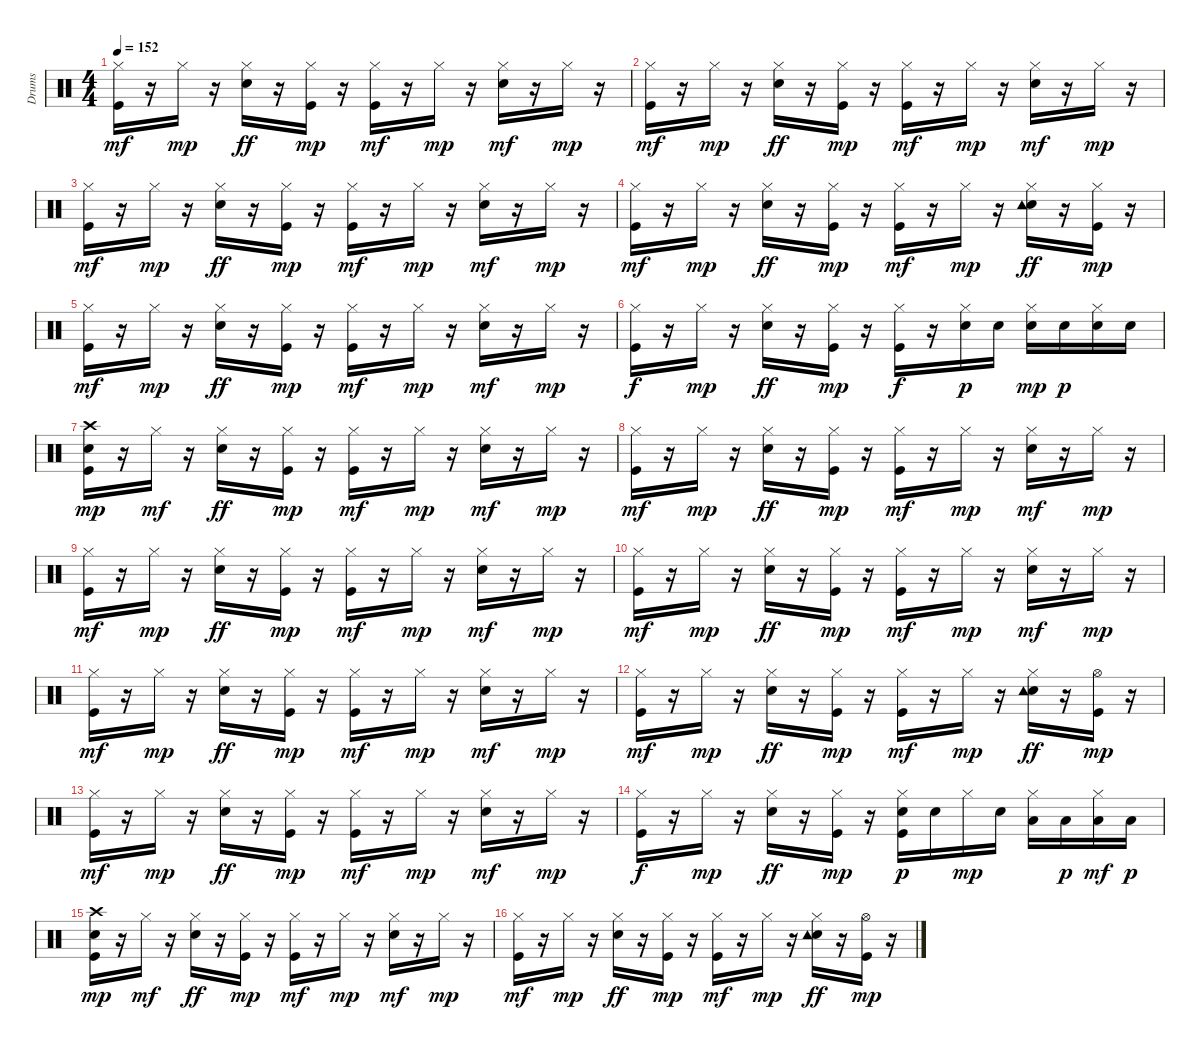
\track ("Drums   " "Drums   ") {instrument percussion}
\staff {score}
\articulation defaults
\ts (4 4)
\tempo 152
\clef neutral
\ks c
("Kick (hit)" "Hi-Hat (closed)").16{dy mf} r.16 "Hi-Hat (closed)".16{dy mp} r.16 ("Snare (hit) 2" "Hi-Hat (closed)").16{dy ff} r.16 ("Kick (hit)" "Hi-Hat (closed)").16{dy mp} r.16 ("Kick (hit)" "Hi-Hat (closed)").16{dy mf} r.16 "Hi-Hat (closed)".16{dy mp} r.16 ("Snare (hit) 2" "Hi-Hat (closed)").16{dy mf} r.16 "Hi-Hat (closed)".16{dy mp} r.16 |
("Kick (hit)" "Hi-Hat (closed)").16{dy mf} r.16 "Hi-Hat (closed)".16{dy mp} r.16 ("Snare (hit) 2" "Hi-Hat (closed)").16{dy ff} r.16 ("Kick (hit)" "Hi-Hat (closed)").16{dy mp} r.16 ("Kick (hit)" "Hi-Hat (closed)").16{dy mf} r.16 "Hi-Hat (closed)".16{dy mp} r.16 ("Snare (hit) 2" "Hi-Hat (closed)").16{dy mf} r.16 "Hi-Hat (closed)".16{dy mp} r.16 |
("Kick (hit)" "Hi-Hat (closed)").16{dy mf} r.16 "Hi-Hat (closed)".16{dy mp} r.16 ("Snare (hit) 2" "Hi-Hat (closed)").16{dy ff} r.16 ("Kick (hit)" "Hi-Hat (closed)").16{dy mp} r.16 ("Kick (hit)" "Hi-Hat (closed)").16{dy mf} r.16 "Hi-Hat (closed)".16{dy mp} r.16 ("Snare (hit) 2" "Hi-Hat (closed)").16{dy mf} r.16 "Hi-Hat (closed)".16{dy mp} r.16 |
("Kick (hit)" "Hi-Hat (closed)").16{dy mf} r.16 "Hi-Hat (closed)".16{dy mp} r.16 ("Snare (hit) 2" "Hi-Hat (closed)").16{dy ff} r.16 ("Kick (hit)" "Hi-Hat (closed)").16{dy mp} r.16 ("Kick (hit)" "Hi-Hat (closed)").16{dy mf} r.16 "Hi-Hat (closed)".16{dy mp} r.16 ("Snare (hit) 2" "Hi-Hat (closed)" "Tambourine (hit)").16{dy ff} r.16 ("Kick (hit)" "Hi-Hat (closed)").16{dy mp} r.16 |
("Kick (hit)" "Hi-Hat (closed)").16{dy mf} r.16 "Hi-Hat (closed)".16{dy mp} r.16 ("Snare (hit) 2" "Hi-Hat (closed)").16{dy ff} r.16 ("Kick (hit)" "Hi-Hat (closed)").16{dy mp} r.16 ("Kick (hit)" "Hi-Hat (closed)").16{dy mf} r.16 "Hi-Hat (closed)".16{dy mp} r.16 ("Snare (hit) 2" "Hi-Hat (closed)").16{dy mf} r.16 "Hi-Hat (closed)".16{dy mp} r.16 |
("Kick (hit)" "Hi-Hat (closed)").16{dy f} r.16 "Hi-Hat (closed)".16{dy mp} r.16 ("Snare (hit) 2" "Hi-Hat (closed)").16{dy ff} r.16 ("Kick (hit)" "Hi-Hat (closed)").16{dy mp} r.16 ("Kick (hit)" "Hi-Hat (closed)").16{dy f} r.16 ("Snare (hit) 2" "Hi-Hat (closed)").16{dy p} "Snare (hit) 2".16 ("Snare (hit) 2" "Hi-Hat (closed)").16{dy mp} "Snare (hit) 2".16{dy p} ("Snare (hit) 2" "Hi-Hat (closed)").16 "Snare (hit) 2".16 |
("Kick (hit)" "Snare (hit) 2" "Crash high (hit)").16{dy mp} r.16 "Hi-Hat (closed)".16{dy mf} r.16 ("Snare (hit) 2" "Hi-Hat (closed)").16{dy ff} r.16 ("Kick (hit)" "Hi-Hat (closed)").16{dy mp} r.16 ("Kick (hit)" "Hi-Hat (closed)").16{dy mf} r.16 "Hi-Hat (closed)".16{dy mp} r.16 ("Snare (hit) 2" "Hi-Hat (closed)").16{dy mf} r.16 "Hi-Hat (closed)".16{dy mp} r.16 |
("Kick (hit)" "Hi-Hat (closed)").16{dy mf} r.16 "Hi-Hat (closed)".16{dy mp} r.16 ("Snare (hit) 2" "Hi-Hat (closed)").16{dy ff} r.16 ("Kick (hit)" "Hi-Hat (closed)").16{dy mp} r.16 ("Kick (hit)" "Hi-Hat (closed)").16{dy mf} r.16 "Hi-Hat (closed)".16{dy mp} r.16 ("Snare (hit) 2" "Hi-Hat (closed)").16{dy mf} r.16 "Hi-Hat (closed)".16{dy mp} r.16 |
("Kick (hit)" "Hi-Hat (closed)").16{dy mf} r.16 "Hi-Hat (closed)".16{dy mp} r.16 ("Snare (hit) 2" "Hi-Hat (closed)").16{dy ff} r.16 ("Kick (hit)" "Hi-Hat (closed)").16{dy mp} r.16 ("Kick (hit)" "Hi-Hat (closed)").16{dy mf} r.16 "Hi-Hat (closed)".16{dy mp} r.16 ("Snare (hit) 2" "Hi-Hat (closed)").16{dy mf} r.16 "Hi-Hat (closed)".16{dy mp} r.16 |
("Kick (hit)" "Hi-Hat (closed)").16{dy mf} r.16 "Hi-Hat (closed)".16{dy mp} r.16 ("Snare (hit) 2" "Hi-Hat (closed)").16{dy ff} r.16 ("Kick (hit)" "Hi-Hat (closed)").16{dy mp} r.16 ("Kick (hit)" "Hi-Hat (closed)").16{dy mf} r.16 "Hi-Hat (closed)".16{dy mp} r.16 ("Snare (hit) 2" "Hi-Hat (closed)").16{dy mf} r.16 "Hi-Hat (closed)".16{dy mp} r.16 |
("Kick (hit)" "Hi-Hat (closed)").16{dy mf} r.16 "Hi-Hat (closed)".16{dy mp} r.16 ("Snare (hit) 2" "Hi-Hat (closed)").16{dy ff} r.16 ("Kick (hit)" "Hi-Hat (closed)").16{dy mp} r.16 ("Kick (hit)" "Hi-Hat (closed)").16{dy mf} r.16 "Hi-Hat (closed)".16{dy mp} r.16 ("Snare (hit) 2" "Hi-Hat (closed)").16{dy mf} r.16 "Hi-Hat (closed)".16{dy mp} r.16 |
("Kick (hit)" "Hi-Hat (closed)").16{dy mf} r.16 "Hi-Hat (closed)".16{dy mp} r.16 ("Snare (hit) 2" "Hi-Hat (closed)").16{dy ff} r.16 ("Kick (hit)" "Hi-Hat (closed)").16{dy mp} r.16 ("Kick (hit)" "Hi-Hat (closed)").16{dy mf} r.16 "Hi-Hat (closed)".16{dy mp} r.16 ("Snare (hit) 2" "Hi-Hat (closed)" "Tambourine (hit)").16{dy ff} r.16 ("Kick (hit)" "Hi-Hat (open)").16{dy mp} r.16 |
("Kick (hit)" "Hi-Hat (closed)").16{dy mf} r.16 "Hi-Hat (closed)".16{dy mp} r.16 ("Snare (hit) 2" "Hi-Hat (closed)").16{dy ff} r.16 ("Kick (hit)" "Hi-Hat (closed)").16{dy mp} r.16 ("Kick (hit)" "Hi-Hat (closed)").16{dy mf} r.16 "Hi-Hat (closed)".16{dy mp} r.16 ("Snare (hit) 2" "Hi-Hat (closed)").16{dy mf} r.16 "Hi-Hat (closed)".16{dy mp} r.16 |
("Kick (hit)" "Hi-Hat (closed)").16{dy f} r.16 "Hi-Hat (closed)".16{dy mp} r.16 ("Snare (hit) 2" "Hi-Hat (closed)").16{dy ff} r.16 ("Kick (hit)" "Hi-Hat (closed)").16{dy mp} r.16 ("Kick (hit)" "Snare (hit) 2" "Hi-Hat (closed)").16{dy p} "Snare (hit) 2".16 "Hi-Hat (closed)".16{dy mp} "Snare (hit) 2".16 ("Hi-Hat (closed)" "Low Tom (hit)").16 "Low Tom (hit)".16{dy p} ("Hi-Hat (closed)" "Low Tom (hit)").16{dy mf} "Low Tom (hit)".16{dy p} |
("Kick (hit)" "Snare (hit) 2" "Crash high (hit)").16{dy mp} r.16 "Hi-Hat (closed)".16{dy mf} r.16 ("Snare (hit) 2" "Hi-Hat (closed)").16{dy ff} r.16 ("Kick (hit)" "Hi-Hat (closed)").16{dy mp} r.16 ("Kick (hit)" "Hi-Hat (closed)").16{dy mf} r.16 "Hi-Hat (closed)".16{dy mp} r.16 ("Snare (hit) 2" "Hi-Hat (closed)").16{dy mf} r.16 "Hi-Hat (closed)".16{dy mp} r.16 |
("Kick (hit)" "Hi-Hat (closed)").16{dy mf} r.16 "Hi-Hat (closed)".16{dy mp} r.16 ("Snare (hit) 2" "Hi-Hat (closed)").16{dy ff} r.16 ("Kick (hit)" "Hi-Hat (closed)").16{dy mp} r.16 ("Kick (hit)" "Hi-Hat (closed)").16{dy mf} r.16 "Hi-Hat (closed)".16{dy mp} r.16 ("Snare (hit) 2" "Hi-Hat (closed)" "Tambourine (hit)").16{dy ff} r.16 ("Kick (hit)" "Hi-Hat (open)").16{dy mp} r.16
